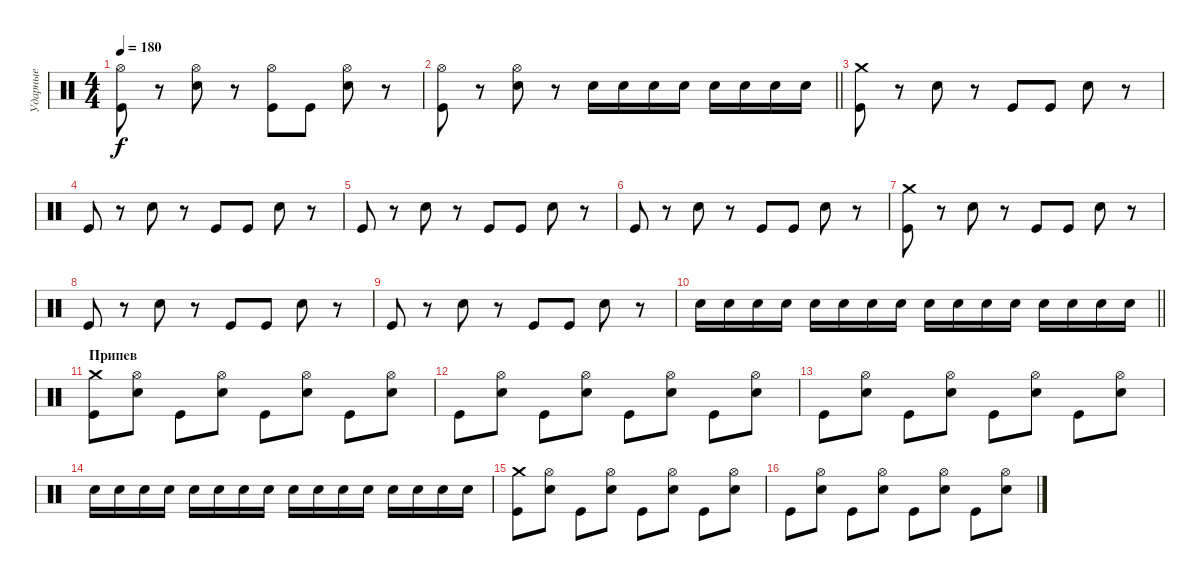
\track ("Ударные" "Ударные") {instrument percussion}
\staff {score}
\articulation defaults
\ts (4 4)
\tempo 180
\clef neutral
\ks c
("Hi-Hat (open)" "Kick (hit)").8{dy f} r.8 ("Hi-Hat (open)" "Electric Snare (hit)").8 r.8 ("Hi-Hat (open)" "Kick (hit)").8 "Kick (hit)".8 ("Hi-Hat (open)" "Electric Snare (hit)").8 r.8 |
\barLineRight lightlight
("Hi-Hat (open)" "Kick (hit)").8 r.8 ("Hi-Hat (open)" "Electric Snare (hit)").8 r.8 "Electric Snare (hit)".16 "Electric Snare (hit)".16 "Electric Snare (hit)".16 "Electric Snare (hit)".16 "Electric Snare (hit)".16 "Electric Snare (hit)".16 "Electric Snare (hit)".16 "Electric Snare (hit)".16 |
\section ("" " ")
("Crash medium (hit)" "Kick (hit)").8 r.8 "Electric Snare (hit)".8 r.8 "Kick (hit)".8 "Kick (hit)".8 "Electric Snare (hit)".8 r.8 |
"Kick (hit)".8 r.8 "Electric Snare (hit)".8 r.8 "Kick (hit)".8 "Kick (hit)".8 "Electric Snare (hit)".8 r.8 |
"Kick (hit)".8 r.8 "Electric Snare (hit)".8 r.8 "Kick (hit)".8 "Kick (hit)".8 "Electric Snare (hit)".8 r.8 |
"Kick (hit)".8 r.8 "Electric Snare (hit)".8 r.8 "Kick (hit)".8 "Kick (hit)".8 "Electric Snare (hit)".8 r.8 |
("Crash medium (hit)" "Kick (hit)").8 r.8 "Electric Snare (hit)".8 r.8 "Kick (hit)".8 "Kick (hit)".8 "Electric Snare (hit)".8 r.8 |
"Kick (hit)".8 r.8 "Electric Snare (hit)".8 r.8 "Kick (hit)".8 "Kick (hit)".8 "Electric Snare (hit)".8 r.8 |
"Kick (hit)".8 r.8 "Electric Snare (hit)".8 r.8 "Kick (hit)".8 "Kick (hit)".8 "Electric Snare (hit)".8 r.8 |
\barLineRight lightlight "Electric Snare (hit)".16 "Electric Snare (hit)".16 "Electric Snare (hit)".16 "Electric Snare (hit)".16 "Electric Snare (hit)".16 "Electric Snare (hit)".16 "Electric Snare (hit)".16 "Electric Snare (hit)".16 "Electric Snare (hit)".16 "Electric Snare (hit)".16 "Electric Snare (hit)".16 "Electric Snare (hit)".16 "Electric Snare (hit)".16 "Electric Snare (hit)".16 "Electric Snare (hit)".16 "Electric Snare (hit)".16
|
\section ("" "Припев")
("Crash medium (hit)" "Kick (hit)").8 ("Hi-Hat (open)" "Electric Snare (hit)").8 "Kick (hit)".8 ("Hi-Hat (open)" "Electric Snare (hit)").8 "Kick (hit)".8 ("Hi-Hat (open)" "Electric Snare (hit)").8 "Kick (hit)".8 ("Hi-Hat (open)" "Electric Snare (hit)").8 |
"Kick (hit)".8 ("Hi-Hat (open)" "Electric Snare (hit)").8 "Kick (hit)".8 ("Hi-Hat (open)" "Electric Snare (hit)").8 "Kick (hit)".8 ("Hi-Hat (open)" "Electric Snare (hit)").8 "Kick (hit)".8 ("Hi-Hat (open)" "Electric Snare (hit)").8 |
"Kick (hit)".8 ("Hi-Hat (open)" "Electric Snare (hit)").8 "Kick (hit)".8 ("Hi-Hat (open)" "Electric Snare (hit)").8 "Kick (hit)".8 ("Hi-Hat (open)" "Electric Snare (hit)").8 "Kick (hit)".8 ("Hi-Hat (open)" "Electric Snare (hit)").8 |
"Electric Snare (hit)".16 "Electric Snare (hit)".16 "Electric Snare (hit)".16 "Electric Snare (hit)".16 "Electric Snare (hit)".16 "Electric Snare (hit)".16 "Electric Snare (hit)".16 "Electric Snare (hit)".16 "Electric Snare (hit)".16 "Electric Snare (hit)".16 "Electric Snare (hit)".16 "Electric Snare (hit)".16 "Electric Snare (hit)".16 "Electric Snare (hit)".16 "Electric Snare (hit)".16 "Electric Snare (hit)".16 |
("Crash medium (hit)" "Kick (hit)").8 ("Hi-Hat (open)" "Electric Snare (hit)").8 "Kick (hit)".8 ("Hi-Hat (open)" "Electric Snare (hit)").8 "Kick (hit)".8 ("Hi-Hat (open)" "Electric Snare (hit)").8 "Kick (hit)".8 ("Hi-Hat (open)" "Electric Snare (hit)").8 |
"Kick (hit)".8 ("Hi-Hat (open)" "Electric Snare (hit)").8 "Kick (hit)".8 ("Hi-Hat (open)" "Electric Snare (hit)").8 "Kick (hit)".8 ("Hi-Hat (open)" "Electric Snare (hit)").8 "Kick (hit)".8 ("Hi-Hat (open)" "Electric Snare (hit)").8
